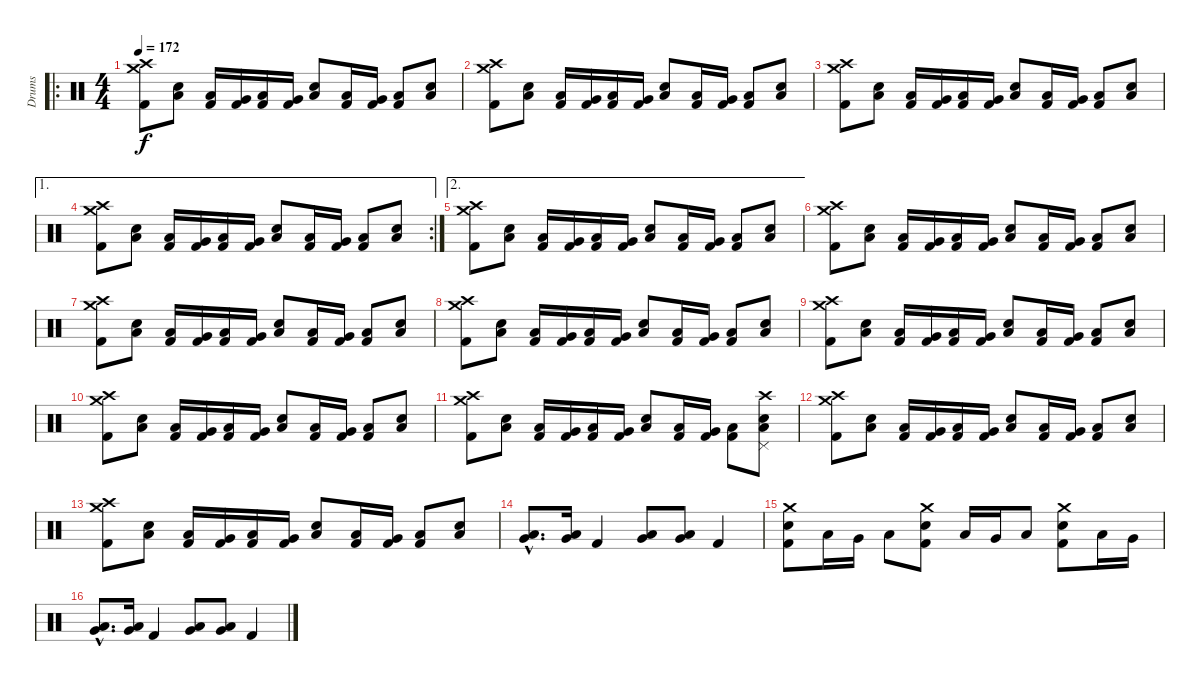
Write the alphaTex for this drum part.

\track ("Drums" "Drums") {instrument percussion}
\staff {score}
\articulation defaults
\ro
\ts (4 4)
\tempo 172
\clef neutral
\ks c
("Crash medium (hit)" "Crash high (hit)" "Kick (hit) 2").8{dy f} ("Low Floor Tom (hit)" "Electric Snare (hit)").8 ("Low Floor Tom (hit)" "Kick (hit) 2").16 ("Very Low Tom (hit)" "Kick (hit) 2").16 ("Low Floor Tom (hit)" "Kick (hit) 2").16 ("Very Low Tom (hit)" "Kick (hit) 2").16 ("Low Floor Tom (hit)" "Electric Snare (hit)").8 ("Low Floor Tom (hit)" "Kick (hit) 2").16 ("Very Low Tom (hit)" "Kick (hit) 2").16 ("Low Floor Tom (hit)" "Kick (hit) 2").8 ("Low Floor Tom (hit)" "Electric Snare (hit)").8 |
("Crash medium (hit)" "Crash high (hit)" "Kick (hit) 2").8 ("Low Floor Tom (hit)" "Electric Snare (hit)").8 ("Low Floor Tom (hit)" "Kick (hit) 2").16 ("Very Low Tom (hit)" "Kick (hit) 2").16 ("Low Floor Tom (hit)" "Kick (hit) 2").16 ("Very Low Tom (hit)" "Kick (hit) 2").16 ("Low Floor Tom (hit)" "Electric Snare (hit)").8 ("Low Floor Tom (hit)" "Kick (hit) 2").16 ("Very Low Tom (hit)" "Kick (hit) 2").16 ("Low Floor Tom (hit)" "Kick (hit) 2").8 ("Low Floor Tom (hit)" "Electric Snare (hit)").8 |
("Crash medium (hit)" "Crash high (hit)" "Kick (hit) 2").8 ("Low Floor Tom (hit)" "Electric Snare (hit)").8 ("Low Floor Tom (hit)" "Kick (hit) 2").16 ("Very Low Tom (hit)" "Kick (hit) 2").16 ("Low Floor Tom (hit)" "Kick (hit) 2").16 ("Very Low Tom (hit)" "Kick (hit) 2").16 ("Low Floor Tom (hit)" "Electric Snare (hit)").8 ("Low Floor Tom (hit)" "Kick (hit) 2").16 ("Very Low Tom (hit)" "Kick (hit) 2").16 ("Low Floor Tom (hit)" "Kick (hit) 2").8 ("Low Floor Tom (hit)" "Electric Snare (hit)").8 |
\ae 1
\rc 2
("Crash medium (hit)" "Crash high (hit)" "Kick (hit) 2").8 ("Low Floor Tom (hit)" "Electric Snare (hit)").8 ("Low Floor Tom (hit)" "Kick (hit) 2").16 ("Very Low Tom (hit)" "Kick (hit) 2").16 ("Low Floor Tom (hit)" "Kick (hit) 2").16 ("Very Low Tom (hit)" "Kick (hit) 2").16 ("Low Floor Tom (hit)" "Electric Snare (hit)").8 ("Low Floor Tom (hit)" "Kick (hit) 2").16 ("Very Low Tom (hit)" "Kick (hit) 2").16 ("Low Floor Tom (hit)" "Kick (hit) 2").8 ("Low Floor Tom (hit)" "Electric Snare (hit)").8 |
\ae 2
("Crash medium (hit)" "Crash high (hit)" "Kick (hit) 2").8 ("Low Floor Tom (hit)" "Electric Snare (hit)").8 ("Low Floor Tom (hit)" "Kick (hit) 2").16 ("Very Low Tom (hit)" "Kick (hit) 2").16 ("Low Floor Tom (hit)" "Kick (hit) 2").16 ("Very Low Tom (hit)" "Kick (hit) 2").16 ("Low Floor Tom (hit)" "Electric Snare (hit)").8 ("Low Floor Tom (hit)" "Kick (hit) 2").16 ("Very Low Tom (hit)" "Kick (hit) 2").16 ("Low Floor Tom (hit)" "Kick (hit) 2").8 ("Low Floor Tom (hit)" "Electric Snare (hit)").8 |
("Crash medium (hit)" "Crash high (hit)" "Kick (hit) 2").8 ("Low Floor Tom (hit)" "Electric Snare (hit)").8 ("Low Floor Tom (hit)" "Kick (hit) 2").16 ("Very Low Tom (hit)" "Kick (hit) 2").16 ("Low Floor Tom (hit)" "Kick (hit) 2").16 ("Very Low Tom (hit)" "Kick (hit) 2").16 ("Low Floor Tom (hit)" "Electric Snare (hit)").8 ("Low Floor Tom (hit)" "Kick (hit) 2").16 ("Very Low Tom (hit)" "Kick (hit) 2").16 ("Low Floor Tom (hit)" "Kick (hit) 2").8 ("Low Floor Tom (hit)" "Electric Snare (hit)").8 |
("Crash medium (hit)" "Crash high (hit)" "Kick (hit) 2").8 ("Low Floor Tom (hit)" "Electric Snare (hit)").8 ("Low Floor Tom (hit)" "Kick (hit) 2").16 ("Very Low Tom (hit)" "Kick (hit) 2").16 ("Low Floor Tom (hit)" "Kick (hit) 2").16 ("Very Low Tom (hit)" "Kick (hit) 2").16 ("Low Floor Tom (hit)" "Electric Snare (hit)").8 ("Low Floor Tom (hit)" "Kick (hit) 2").16 ("Very Low Tom (hit)" "Kick (hit) 2").16 ("Low Floor Tom (hit)" "Kick (hit) 2").8 ("Low Floor Tom (hit)" "Electric Snare (hit)").8 |
("Crash medium (hit)" "Crash high (hit)" "Kick (hit) 2").8 ("Low Floor Tom (hit)" "Electric Snare (hit)").8 ("Low Floor Tom (hit)" "Kick (hit) 2").16 ("Very Low Tom (hit)" "Kick (hit) 2").16 ("Low Floor Tom (hit)" "Kick (hit) 2").16 ("Very Low Tom (hit)" "Kick (hit) 2").16 ("Low Floor Tom (hit)" "Electric Snare (hit)").8 ("Low Floor Tom (hit)" "Kick (hit) 2").16 ("Very Low Tom (hit)" "Kick (hit) 2").16 ("Low Floor Tom (hit)" "Kick (hit) 2").8 ("Low Floor Tom (hit)" "Electric Snare (hit)").8 |
("Crash medium (hit)" "Crash high (hit)" "Kick (hit) 2").8 ("Low Floor Tom (hit)" "Electric Snare (hit)").8 ("Low Floor Tom (hit)" "Kick (hit) 2").16 ("Very Low Tom (hit)" "Kick (hit) 2").16 ("Low Floor Tom (hit)" "Kick (hit) 2").16 ("Very Low Tom (hit)" "Kick (hit) 2").16 ("Low Floor Tom (hit)" "Electric Snare (hit)").8 ("Low Floor Tom (hit)" "Kick (hit) 2").16 ("Very Low Tom (hit)" "Kick (hit) 2").16 ("Low Floor Tom (hit)" "Kick (hit) 2").8 ("Low Floor Tom (hit)" "Electric Snare (hit)").8 |
("Crash medium (hit)" "Crash high (hit)" "Kick (hit) 2").8 ("Low Floor Tom (hit)" "Electric Snare (hit)").8 ("Low Floor Tom (hit)" "Kick (hit) 2").16 ("Very Low Tom (hit)" "Kick (hit) 2").16 ("Low Floor Tom (hit)" "Kick (hit) 2").16 ("Very Low Tom (hit)" "Kick (hit) 2").16 ("Low Floor Tom (hit)" "Electric Snare (hit)").8 ("Low Floor Tom (hit)" "Kick (hit) 2").16 ("Very Low Tom (hit)" "Kick (hit) 2").16 ("Low Floor Tom (hit)" "Kick (hit) 2").8 ("Low Floor Tom (hit)" "Electric Snare (hit)").8 |
("Crash medium (hit)" "Crash high (hit)" "Kick (hit) 2").8 ("Low Floor Tom (hit)" "Electric Snare (hit)").8 ("Low Floor Tom (hit)" "Kick (hit) 2").16 ("Very Low Tom (hit)" "Kick (hit) 2").16 ("Low Floor Tom (hit)" "Kick (hit) 2").16 ("Very Low Tom (hit)" "Kick (hit) 2").16 ("Low Floor Tom (hit)" "Electric Snare (hit)").8 ("Low Floor Tom (hit)" "Kick (hit) 2").16 ("Very Low Tom (hit)" "Kick (hit) 2").16 ("Low Floor Tom (hit)" "Kick (hit) 2").8 ("Low Floor Tom (hit)" "Crash high (hit)" "Pedal Hi-Hat (hit)" "Electric Snare (hit)").8 |
("Crash medium (hit)" "Crash high (hit)" "Kick (hit) 2").8 ("Low Floor Tom (hit)" "Electric Snare (hit)").8 ("Low Floor Tom (hit)" "Kick (hit) 2").16 ("Very Low Tom (hit)" "Kick (hit) 2").16 ("Low Floor Tom (hit)" "Kick (hit) 2").16 ("Very Low Tom (hit)" "Kick (hit) 2").16 ("Low Floor Tom (hit)" "Electric Snare (hit)").8 ("Low Floor Tom (hit)" "Kick (hit) 2").16 ("Very Low Tom (hit)" "Kick (hit) 2").16 ("Low Floor Tom (hit)" "Kick (hit) 2").8 ("Low Floor Tom (hit)" "Electric Snare (hit)").8 |
("Crash medium (hit)" "Crash high (hit)" "Kick (hit) 2").8 ("Low Floor Tom (hit)" "Electric Snare (hit)").8 ("Low Floor Tom (hit)" "Kick (hit) 2").16 ("Very Low Tom (hit)" "Kick (hit) 2").16 ("Low Floor Tom (hit)" "Kick (hit) 2").16 ("Very Low Tom (hit)" "Kick (hit) 2").16 ("Low Floor Tom (hit)" "Electric Snare (hit)").8 ("Low Floor Tom (hit)" "Kick (hit) 2").16 ("Very Low Tom (hit)" "Kick (hit) 2").16 ("Low Floor Tom (hit)" "Kick (hit) 2").8 ("Low Floor Tom (hit)" "Electric Snare (hit)").8 |
("Very Low Tom (hit)"{hac} "Low Tom (hit)"{hac}).8{d} ("Very Low Tom (hit)" "Low Tom (hit)").16 "Kick (hit) 2".4 ("Low Floor Tom (hit)" "Very Low Tom (hit)").8 ("Low Floor Tom (hit)" "Very Low Tom (hit)").8 "Kick (hit) 2".4 |
("Crash medium (hit)" "Electric Snare (hit)" "Kick (hit) 2").8 "Low Floor Tom (hit)".16 "Very Low Tom (hit)".16 "Low Floor Tom (hit)".8 ("Crash medium (hit)" "Electric Snare (hit)" "Kick (hit) 2").8 "Low Floor Tom (hit)".16 "Very Low Tom (hit)".16 "Low Floor Tom (hit)".8 ("Crash medium (hit)" "Electric Snare (hit)" "Kick (hit) 2").8 "Low Floor Tom (hit)".16 "Very Low Tom (hit)".16 |
("Very Low Tom (hit)"{hac} "Low Tom (hit)"{hac}).8{d} ("Very Low Tom (hit)" "Low Tom (hit)").16 "Kick (hit) 2".4 ("Low Floor Tom (hit)" "Very Low Tom (hit)").8 ("Low Floor Tom (hit)" "Very Low Tom (hit)").8 "Kick (hit) 2".4
